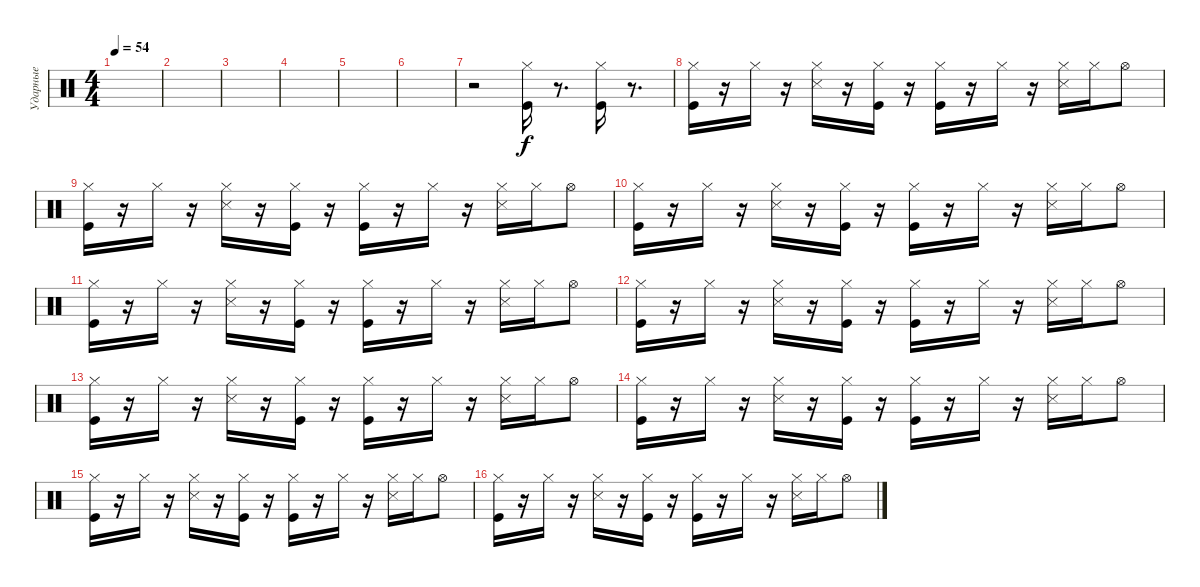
\track ("Ударные" "Ударные") {instrument percussion}
\staff {score}
\articulation defaults
\ts (4 4)
\tempo 54
\clef neutral
\ks c
|
|
|
|
|
|
r.2 ("Hi-Hat (closed)" "Kick (hit)").16 r.8{d} ("Hi-Hat (closed)" "Kick (hit)").16 r.8{d} |
("Kick (hit)" "Hi-Hat (closed)").16 r.16 "Hi-Hat (closed)".16 r.16 ("Snare (side stick) 3" "Hi-Hat (closed)").16 r.16 ("Kick (hit)" "Hi-Hat (closed)").16 r.16 ("Kick (hit)" "Hi-Hat (closed)").16 r.16 "Hi-Hat (closed)".16 r.16 ("Hi-Hat (closed)" "Snare (side stick) 3").16 "Hi-Hat (closed)".16 "Hi-Hat (open)".8 |
("Kick (hit)" "Hi-Hat (closed)").16 r.16 "Hi-Hat (closed)".16 r.16 ("Snare (side stick) 3" "Hi-Hat (closed)").16 r.16 ("Kick (hit)" "Hi-Hat (closed)").16 r.16 ("Kick (hit)" "Hi-Hat (closed)").16 r.16 "Hi-Hat (closed)".16 r.16 ("Hi-Hat (closed)" "Snare (side stick) 3").16 "Hi-Hat (closed)".16 "Hi-Hat (open)".8 |
("Kick (hit)" "Hi-Hat (closed)").16 r.16 "Hi-Hat (closed)".16 r.16 ("Snare (side stick) 3" "Hi-Hat (closed)").16 r.16 ("Kick (hit)" "Hi-Hat (closed)").16 r.16 ("Kick (hit)" "Hi-Hat (closed)").16 r.16 "Hi-Hat (closed)".16 r.16 ("Hi-Hat (closed)" "Snare (side stick) 3").16 "Hi-Hat (closed)".16 "Hi-Hat (open)".8 |
("Kick (hit)" "Hi-Hat (closed)").16 r.16 "Hi-Hat (closed)".16 r.16 ("Snare (side stick) 3" "Hi-Hat (closed)").16 r.16 ("Kick (hit)" "Hi-Hat (closed)").16 r.16 ("Kick (hit)" "Hi-Hat (closed)").16 r.16 "Hi-Hat (closed)".16 r.16 ("Hi-Hat (closed)" "Snare (side stick) 3").16 "Hi-Hat (closed)".16 "Hi-Hat (open)".8 |
("Kick (hit)" "Hi-Hat (closed)").16 r.16 "Hi-Hat (closed)".16 r.16 ("Snare (side stick) 3" "Hi-Hat (closed)").16 r.16 ("Kick (hit)" "Hi-Hat (closed)").16 r.16 ("Kick (hit)" "Hi-Hat (closed)").16 r.16 "Hi-Hat (closed)".16 r.16 ("Hi-Hat (closed)" "Snare (side stick) 3").16 "Hi-Hat (closed)".16 "Hi-Hat (open)".8 |
("Kick (hit)" "Hi-Hat (closed)").16 r.16 "Hi-Hat (closed)".16 r.16 ("Snare (side stick) 3" "Hi-Hat (closed)").16 r.16 ("Kick (hit)" "Hi-Hat (closed)").16 r.16 ("Kick (hit)" "Hi-Hat (closed)").16 r.16 "Hi-Hat (closed)".16 r.16 ("Hi-Hat (closed)" "Snare (side stick) 3").16 "Hi-Hat (closed)".16 "Hi-Hat (open)".8 |
("Kick (hit)" "Hi-Hat (closed)").16 r.16 "Hi-Hat (closed)".16 r.16 ("Snare (side stick) 3" "Hi-Hat (closed)").16 r.16 ("Kick (hit)" "Hi-Hat (closed)").16 r.16 ("Kick (hit)" "Hi-Hat (closed)").16 r.16 "Hi-Hat (closed)".16 r.16 ("Hi-Hat (closed)" "Snare (side stick) 3").16 "Hi-Hat (closed)".16 "Hi-Hat (open)".8 |
("Kick (hit)" "Hi-Hat (closed)").16 r.16 "Hi-Hat (closed)".16 r.16 ("Snare (side stick) 3" "Hi-Hat (closed)").16 r.16 ("Kick (hit)" "Hi-Hat (closed)").16 r.16 ("Kick (hit)" "Hi-Hat (closed)").16 r.16 "Hi-Hat (closed)".16 r.16 ("Hi-Hat (closed)" "Snare (side stick) 3").16 "Hi-Hat (closed)".16 "Hi-Hat (open)".8 |
("Kick (hit)" "Hi-Hat (closed)").16 r.16 "Hi-Hat (closed)".16 r.16 ("Snare (side stick) 3" "Hi-Hat (closed)").16 r.16 ("Kick (hit)" "Hi-Hat (closed)").16 r.16 ("Kick (hit)" "Hi-Hat (closed)").16 r.16 "Hi-Hat (closed)".16 r.16 ("Hi-Hat (closed)" "Snare (side stick) 3").16 "Hi-Hat (closed)".16 "Hi-Hat (open)".8
